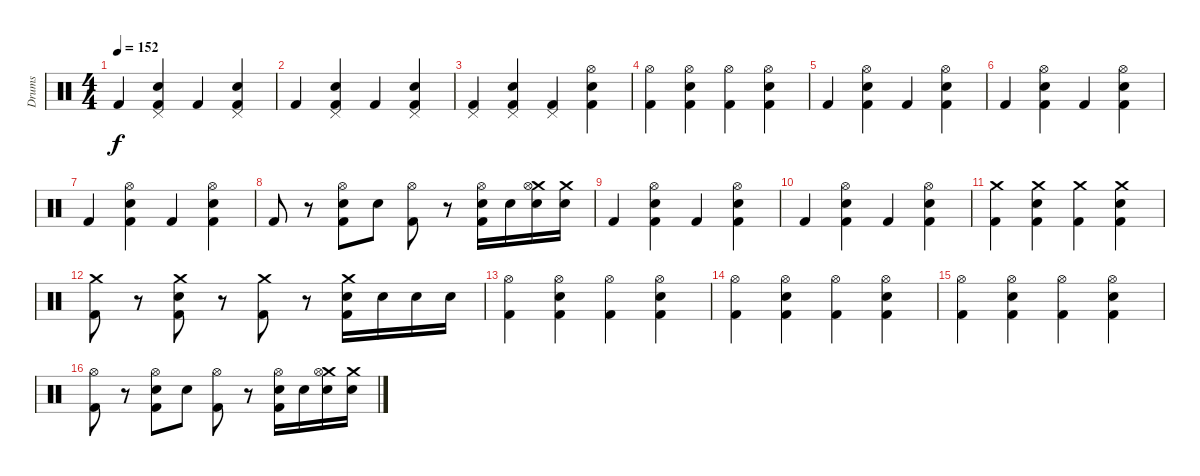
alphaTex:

\track ("Drums" "Drums") {instrument percussion}
\staff {score}
\articulation defaults
\ts (4 4)
\tempo 152
\clef neutral
\ks c "Kick (hit) 2".4{dy f}
("Snare (hit) 2" "Pedal Hi-Hat (hit)" "Kick (hit) 2").4 "Kick (hit) 2".4 ("Snare (hit) 2" "Pedal Hi-Hat (hit)" "Kick (hit) 2").4 |
"Kick (hit) 2".4 ("Snare (hit) 2" "Pedal Hi-Hat (hit)" "Kick (hit) 2").4 "Kick (hit) 2".4 ("Snare (hit) 2" "Pedal Hi-Hat (hit)" "Kick (hit) 2").4 |
("Pedal Hi-Hat (hit)" "Kick (hit) 2").4 ("Snare (hit) 2" "Pedal Hi-Hat (hit)" "Kick (hit) 2").4 ("Pedal Hi-Hat (hit)" "Kick (hit) 2").4 ("Snare (hit) 2" "Hi-Hat (open)" "Kick (hit) 2").4 |
("Hi-Hat (open)" "Kick (hit) 2").4 ("Snare (hit) 2" "Hi-Hat (open)" "Kick (hit) 2").4 ("Hi-Hat (open)" "Kick (hit) 2").4 ("Snare (hit) 2" "Hi-Hat (open)" "Kick (hit) 2").4 |
"Kick (hit) 2".4 ("Snare (hit) 2" "Hi-Hat (open)" "Kick (hit) 2").4 "Kick (hit) 2".4 ("Snare (hit) 2" "Hi-Hat (open)" "Kick (hit) 2").4 |
"Kick (hit) 2".4 ("Snare (hit) 2" "Hi-Hat (open)" "Kick (hit) 2").4 "Kick (hit) 2".4 ("Snare (hit) 2" "Hi-Hat (open)" "Kick (hit) 2").4 |
"Kick (hit) 2".4 ("Snare (hit) 2" "Hi-Hat (open)" "Kick (hit) 2").4 "Kick (hit) 2".4 ("Snare (hit) 2" "Hi-Hat (open)" "Kick (hit) 2").4 |
"Kick (hit) 2".8 r.8 ("Snare (hit) 2" "Hi-Hat (open)" "Kick (hit) 2").8 "Snare (hit) 2".8 ("Hi-Hat (open)" "Kick (hit) 2").8 r.8 ("Snare (hit) 2" "Hi-Hat (open)" "Kick (hit) 2").16 "Snare (hit) 2".16 ("Crash medium (hit)" "Snare (hit) 2" "Hi-Hat (open)").16 ("Crash medium (hit)" "Snare (hit) 2").16 |
"Kick (hit) 2".4 ("Snare (hit) 2" "Hi-Hat (open)" "Kick (hit) 2").4 "Kick (hit) 2".4 ("Snare (hit) 2" "Hi-Hat (open)" "Kick (hit) 2").4 |
"Kick (hit) 2".4 ("Snare (hit) 2" "Hi-Hat (open)" "Kick (hit) 2").4 "Kick (hit) 2".4 ("Snare (hit) 2" "Hi-Hat (open)" "Kick (hit) 2").4 |
("Crash medium (hit)" "Kick (hit) 2").4 ("Snare (hit) 2" "Crash medium (hit)" "Kick (hit) 2").4 ("Crash medium (hit)" "Kick (hit) 2").4 ("Snare (hit) 2" "Crash medium (hit)" "Kick (hit) 2").4 |
("Crash medium (hit)" "Kick (hit) 2").8 r.8 ("Snare (hit) 2" "Crash medium (hit)" "Kick (hit) 2").8 r.8 ("Crash medium (hit)" "Kick (hit) 2").8 r.8 ("Snare (hit) 2" "Crash medium (hit)" "Kick (hit) 2").16 "Snare (hit) 2".16 "Snare (hit) 2".16 "Snare (hit) 2".16 |
("Hi-Hat (open)" "Kick (hit) 2").4 ("Snare (hit) 2" "Hi-Hat (open)" "Kick (hit) 2").4 ("Hi-Hat (open)" "Kick (hit) 2").4 ("Snare (hit) 2" "Hi-Hat (open)" "Kick (hit) 2").4 |
("Hi-Hat (open)" "Kick (hit) 2").4 ("Snare (hit) 2" "Hi-Hat (open)" "Kick (hit) 2").4 ("Hi-Hat (open)" "Kick (hit) 2").4 ("Snare (hit) 2" "Hi-Hat (open)" "Kick (hit) 2").4 |
("Hi-Hat (open)" "Kick (hit) 2").4 ("Snare (hit) 2" "Hi-Hat (open)" "Kick (hit) 2").4 ("Hi-Hat (open)" "Kick (hit) 2").4 ("Snare (hit) 2" "Hi-Hat (open)" "Kick (hit) 2").4 |
("Hi-Hat (open)" "Kick (hit) 2").8 r.8 ("Snare (hit) 2" "Hi-Hat (open)" "Kick (hit) 2").8 "Snare (hit) 2".8 ("Hi-Hat (open)" "Kick (hit) 2").8 r.8 ("Snare (hit) 2" "Hi-Hat (open)" "Kick (hit) 2").16 "Snare (hit) 2".16 ("Crash medium (hit)" "Snare (hit) 2" "Hi-Hat (open)").16 ("Crash medium (hit)" "Snare (hit) 2").16
